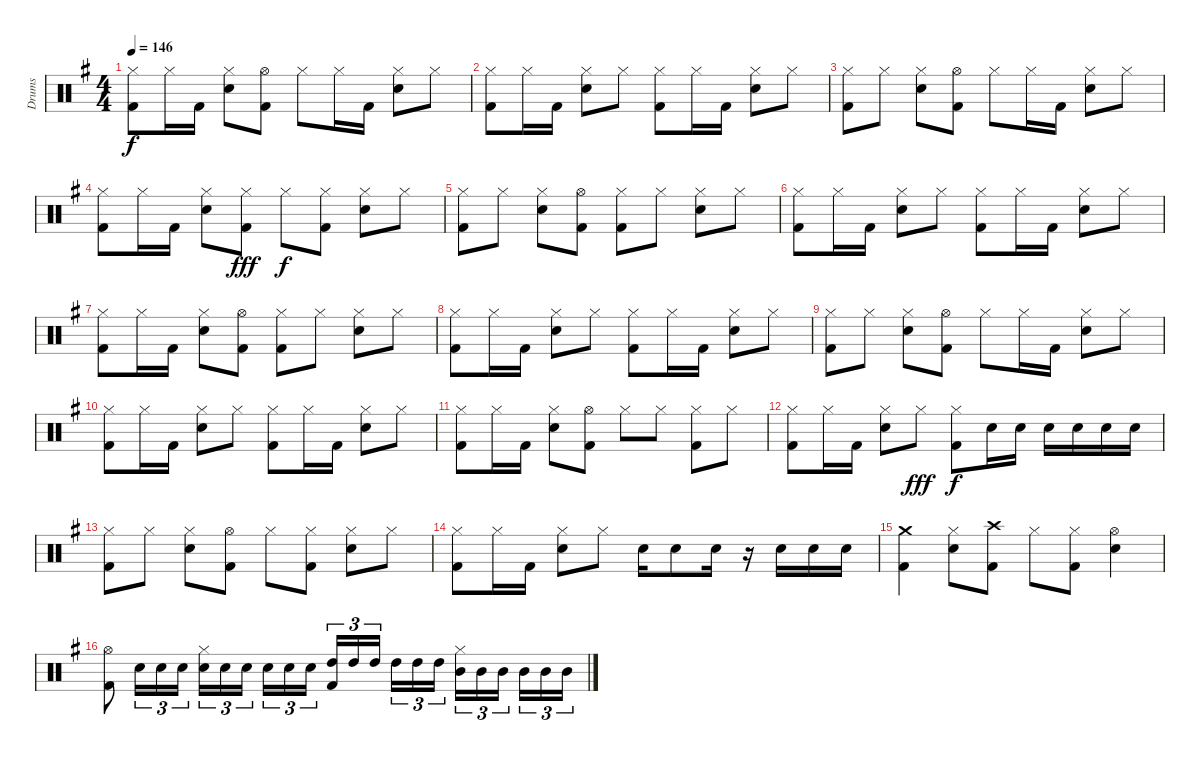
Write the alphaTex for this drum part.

\track ("Drums" "Drums") {instrument percussion}
\staff {score}
\articulation defaults
\ts (4 4)
\tempo 146
\clef neutral
\ks g
("Kick (hit) 2" "Hi-Hat (closed)").8{dy f} "Hi-Hat (closed)".16 "Kick (hit) 2".16 ("Snare (hit) 2" "Hi-Hat (closed)").8 ("Kick (hit) 2" "Hi-Hat (open)").8 "Hi-Hat (closed)".8 "Hi-Hat (closed)".16 "Kick (hit) 2".16 ("Snare (hit) 2" "Hi-Hat (closed)").8 "Hi-Hat (closed)".8 |
("Kick (hit) 2" "Hi-Hat (closed)").8 "Hi-Hat (closed)".16 "Kick (hit) 2".16 ("Snare (hit) 2" "Hi-Hat (closed)").8 "Hi-Hat (closed)".8 ("Kick (hit) 2" "Hi-Hat (closed)").8 "Hi-Hat (closed)".16 "Kick (hit) 2".16 ("Snare (hit) 2" "Hi-Hat (closed)").8 "Hi-Hat (closed)".8 |
("Kick (hit) 2" "Hi-Hat (closed)").8 "Hi-Hat (closed)".8 ("Snare (hit) 2" "Hi-Hat (closed)").8 ("Kick (hit) 2" "Hi-Hat (open)").8 "Hi-Hat (closed)".8 "Hi-Hat (closed)".16 "Kick (hit) 2".16 ("Snare (hit) 2" "Hi-Hat (closed)").8 "Hi-Hat (closed)".8 |
("Kick (hit) 2" "Hi-Hat (closed)").8 "Hi-Hat (closed)".16 "Kick (hit) 2".16 ("Snare (hit) 2" "Hi-Hat (closed)").8 ("Kick (hit) 2" "Hi-Hat (closed)").8{dy fff} "Hi-Hat (closed)".8{dy f} ("Kick (hit) 2" "Hi-Hat (closed)").8 ("Snare (hit) 2" "Hi-Hat (closed)").8 "Hi-Hat (closed)".8 |
("Kick (hit) 2" "Hi-Hat (closed)").8 "Hi-Hat (closed)".8 ("Snare (hit) 2" "Hi-Hat (closed)").8 ("Kick (hit) 2" "Hi-Hat (open)").8 ("Kick (hit) 2" "Hi-Hat (closed)").8 "Hi-Hat (closed)".8 ("Snare (hit) 2" "Hi-Hat (closed)").8 "Hi-Hat (closed)".8 |
("Kick (hit) 2" "Hi-Hat (closed)").8 "Hi-Hat (closed)".16 "Kick (hit) 2".16 ("Snare (hit) 2" "Hi-Hat (closed)").8 "Hi-Hat (closed)".8 ("Kick (hit) 2" "Hi-Hat (closed)").8 "Hi-Hat (closed)".16 "Kick (hit) 2".16 ("Snare (hit) 2" "Hi-Hat (closed)").8 "Hi-Hat (closed)".8 |
("Kick (hit) 2" "Hi-Hat (closed)").8 "Hi-Hat (closed)".16 "Kick (hit) 2".16 ("Snare (hit) 2" "Hi-Hat (closed)").8 ("Kick (hit) 2" "Hi-Hat (open)").8 ("Kick (hit) 2" "Hi-Hat (closed)").8 "Hi-Hat (closed)".8 ("Snare (hit) 2" "Hi-Hat (closed)").8 "Hi-Hat (closed)".8 |
("Kick (hit) 2" "Hi-Hat (closed)").8 "Hi-Hat (closed)".16 "Kick (hit) 2".16 ("Snare (hit) 2" "Hi-Hat (closed)").8 "Hi-Hat (closed)".8 ("Kick (hit) 2" "Hi-Hat (closed)").8 "Hi-Hat (closed)".16 "Kick (hit) 2".16 ("Snare (hit) 2" "Hi-Hat (closed)").8 "Hi-Hat (closed)".8 |
("Kick (hit) 2" "Hi-Hat (closed)").8 "Hi-Hat (closed)".8 ("Snare (hit) 2" "Hi-Hat (closed)").8 ("Kick (hit) 2" "Hi-Hat (open)").8 "Hi-Hat (closed)".8 "Hi-Hat (closed)".16 "Kick (hit) 2".16 ("Snare (hit) 2" "Hi-Hat (closed)").8 "Hi-Hat (closed)".8 |
("Kick (hit) 2" "Hi-Hat (closed)").8 "Hi-Hat (closed)".16 "Kick (hit) 2".16 ("Snare (hit) 2" "Hi-Hat (closed)").8 "Hi-Hat (closed)".8 ("Kick (hit) 2" "Hi-Hat (closed)").8 "Hi-Hat (closed)".16 "Kick (hit) 2".16 ("Snare (hit) 2" "Hi-Hat (closed)").8 "Hi-Hat (closed)".8 |
("Kick (hit) 2" "Hi-Hat (closed)").8 "Hi-Hat (closed)".16 "Kick (hit) 2".16 ("Snare (hit) 2" "Hi-Hat (closed)").8 ("Kick (hit) 2" "Hi-Hat (open)").8 "Hi-Hat (closed)".8 "Hi-Hat (closed)".8 ("Kick (hit) 2" "Hi-Hat (closed)").8 "Hi-Hat (closed)".8 |
("Kick (hit) 2" "Hi-Hat (closed)").8 "Hi-Hat (closed)".16 "Kick (hit) 2".16 ("Snare (hit) 2" "Hi-Hat (closed)").8 "Hi-Hat (closed)".8{dy fff} ("Kick (hit) 2" "Hi-Hat (closed)").8{dy f} "Snare (hit) 2".16 "Snare (hit) 2".16 "Snare (hit) 2".16 "Snare (hit) 2".16 "Snare (hit) 2".16 "Snare (hit) 2".16 |
("Kick (hit) 2" "Hi-Hat (closed)").8 "Hi-Hat (closed)".8 ("Snare (hit) 2" "Hi-Hat (closed)").8 ("Kick (hit) 2" "Hi-Hat (open)").8 "Hi-Hat (closed)".8 ("Kick (hit) 2" "Hi-Hat (closed)").8 ("Snare (hit) 2" "Hi-Hat (closed)").8 "Hi-Hat (closed)".8 |
("Kick (hit) 2" "Hi-Hat (closed)").8 "Hi-Hat (closed)".16 "Kick (hit) 2".16 ("Snare (hit) 2" "Hi-Hat (closed)").8 "Hi-Hat (closed)".8 "Snare (hit) 2".16 "Snare (hit) 2".8 "Snare (hit) 2".16 r.16 "Snare (hit) 2".16 "Snare (hit) 2".16 "Snare (hit) 2".16 |
("Kick (hit) 2" "Crash medium (hit)").4 ("Snare (hit) 2" "Hi-Hat (closed)").8 ("Kick (hit) 2" "Crash high (hit)").8 "Hi-Hat (closed)".8 ("Kick (hit) 2" "Hi-Hat (closed)").8 ("Snare (hit) 2" "Hi-Hat (open)").4 |
("Kick (hit) 2" "Hi-Hat (open)").8 "Snare (hit) 2".16{tu (3 2)} "Snare (hit) 2".16{tu (3 2)} "Snare (hit) 2".16{tu (3 2)} ("Snare (hit) 2" "Hi-Hat (closed)").16{tu (3 2)} "Snare (hit) 2".16{tu (3 2)} "Snare (hit) 2".16{tu (3 2)} "Snare (hit) 2".16{tu (3 2)} "Snare (hit) 2".16{tu (3 2)} "Snare (hit) 2".16{tu (3 2)} ("Kick (hit) 2" "High Tom (hit)").16{tu (3 2)} "High Tom (hit)".16{tu (3 2)} "High Tom (hit)".16{tu (3 2)} "High Tom (hit)".16{tu (3 2)} "High Tom (hit)".16{tu (3 2)} "High Tom (hit)".16{tu (3 2)} ("Hi-Hat (closed)" "Mid Tom (hit)").16{tu (3 2)} "Mid Tom (hit)".16{tu (3 2)} "Mid Tom (hit)".16{tu (3 2)} "Mid Tom (hit)".16{tu (3 2)} "Mid Tom (hit)".16{tu (3 2)} "Mid Tom (hit)".16{tu (3 2)}
